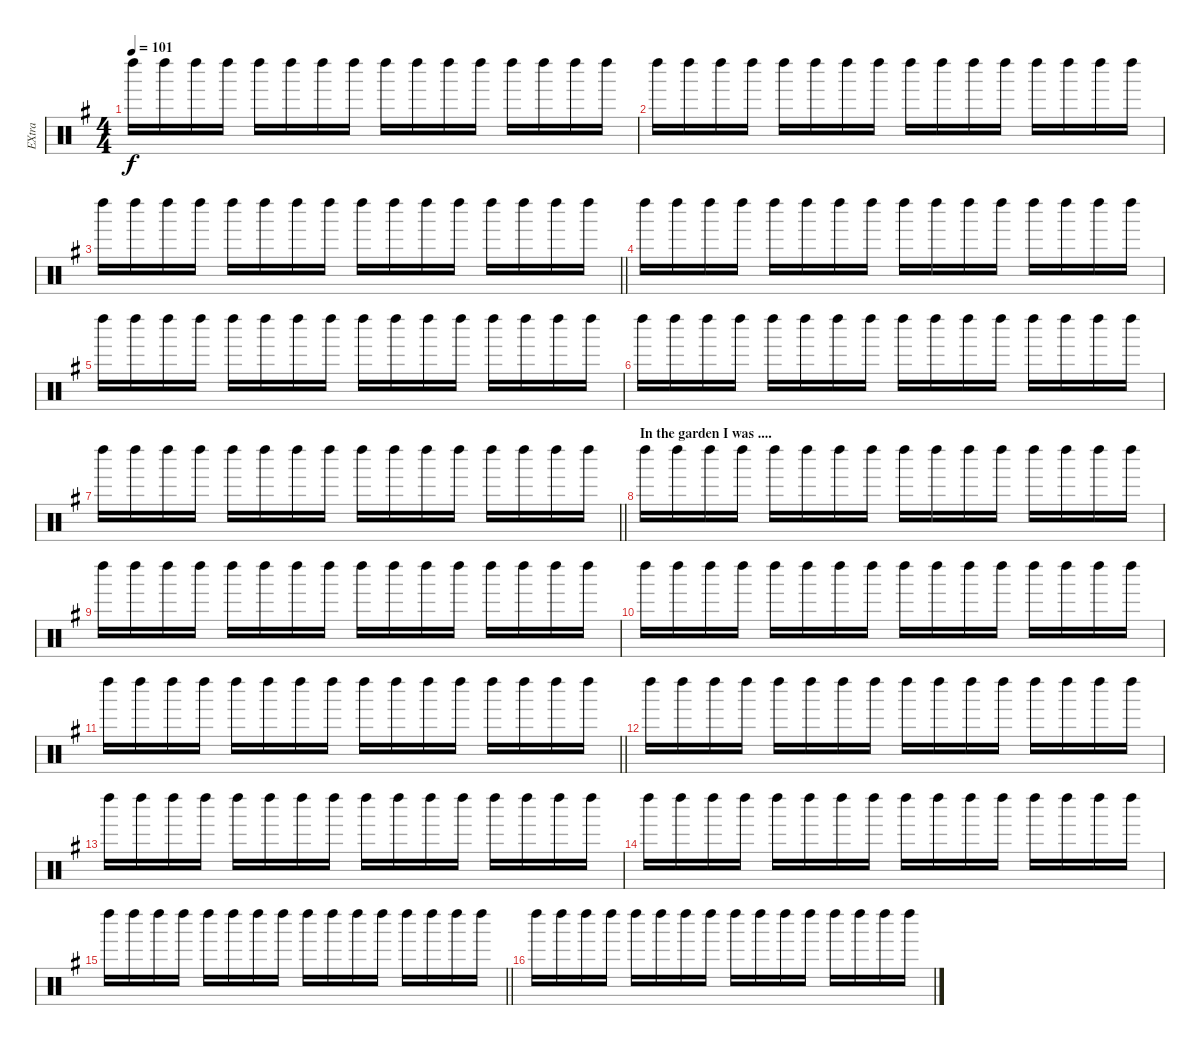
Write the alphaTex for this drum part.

\track ("EXtra" "EXtra") {instrument percussion}
\staff {score}
\articulation defaults
\ts (4 4)
\tempo 101
\clef neutral
\ks g "Left Maraca (hit)".16{dy f} "Left Maraca (hit)".16 "Left Maraca (hit)".16 "Left Maraca (hit)".16 "Left Maraca (hit)".16 "Left Maraca (hit)".16 "Left Maraca (hit)".16 "Left Maraca (hit)".16 "Left Maraca (hit)".16 "Left Maraca (hit)".16 "Left Maraca (hit)".16 "Left Maraca (hit)".16 "Left Maraca (hit)".16 "Left Maraca (hit)".16 "Left Maraca (hit)".16 "Left Maraca (hit)".16
|
"Left Maraca (hit)".16 "Left Maraca (hit)".16 "Left Maraca (hit)".16 "Left Maraca (hit)".16 "Left Maraca (hit)".16 "Left Maraca (hit)".16 "Left Maraca (hit)".16 "Left Maraca (hit)".16 "Left Maraca (hit)".16 "Left Maraca (hit)".16 "Left Maraca (hit)".16 "Left Maraca (hit)".16 "Left Maraca (hit)".16 "Left Maraca (hit)".16 "Left Maraca (hit)".16 "Left Maraca (hit)".16 |
\barLineRight lightlight "Left Maraca (hit)".16 "Left Maraca (hit)".16 "Left Maraca (hit)".16 "Left Maraca (hit)".16 "Left Maraca (hit)".16 "Left Maraca (hit)".16 "Left Maraca (hit)".16 "Left Maraca (hit)".16 "Left Maraca (hit)".16 "Left Maraca (hit)".16 "Left Maraca (hit)".16 "Left Maraca (hit)".16 "Left Maraca (hit)".16 "Left Maraca (hit)".16 "Left Maraca (hit)".16 "Left Maraca (hit)".16
|
"Left Maraca (hit)".16 "Left Maraca (hit)".16 "Left Maraca (hit)".16 "Left Maraca (hit)".16 "Left Maraca (hit)".16 "Left Maraca (hit)".16 "Left Maraca (hit)".16 "Left Maraca (hit)".16 "Left Maraca (hit)".16 "Left Maraca (hit)".16 "Left Maraca (hit)".16 "Left Maraca (hit)".16 "Left Maraca (hit)".16 "Left Maraca (hit)".16 "Left Maraca (hit)".16 "Left Maraca (hit)".16 |
"Left Maraca (hit)".16 "Left Maraca (hit)".16 "Left Maraca (hit)".16 "Left Maraca (hit)".16 "Left Maraca (hit)".16 "Left Maraca (hit)".16 "Left Maraca (hit)".16 "Left Maraca (hit)".16 "Left Maraca (hit)".16 "Left Maraca (hit)".16 "Left Maraca (hit)".16 "Left Maraca (hit)".16 "Left Maraca (hit)".16 "Left Maraca (hit)".16 "Left Maraca (hit)".16 "Left Maraca (hit)".16 |
"Left Maraca (hit)".16 "Left Maraca (hit)".16 "Left Maraca (hit)".16 "Left Maraca (hit)".16 "Left Maraca (hit)".16 "Left Maraca (hit)".16 "Left Maraca (hit)".16 "Left Maraca (hit)".16 "Left Maraca (hit)".16 "Left Maraca (hit)".16 "Left Maraca (hit)".16 "Left Maraca (hit)".16 "Left Maraca (hit)".16 "Left Maraca (hit)".16 "Left Maraca (hit)".16 "Left Maraca (hit)".16 |
\barLineRight lightlight "Left Maraca (hit)".16 "Left Maraca (hit)".16 "Left Maraca (hit)".16 "Left Maraca (hit)".16 "Left Maraca (hit)".16 "Left Maraca (hit)".16 "Left Maraca (hit)".16 "Left Maraca (hit)".16 "Left Maraca (hit)".16 "Left Maraca (hit)".16 "Left Maraca (hit)".16 "Left Maraca (hit)".16 "Left Maraca (hit)".16 "Left Maraca (hit)".16 "Left Maraca (hit)".16 "Left Maraca (hit)".16
|
\section ("" "In the garden I was ....")
"Left Maraca (hit)".16 "Left Maraca (hit)".16 "Left Maraca (hit)".16 "Left Maraca (hit)".16 "Left Maraca (hit)".16 "Left Maraca (hit)".16 "Left Maraca (hit)".16 "Left Maraca (hit)".16 "Left Maraca (hit)".16 "Left Maraca (hit)".16 "Left Maraca (hit)".16 "Left Maraca (hit)".16 "Left Maraca (hit)".16 "Left Maraca (hit)".16 "Left Maraca (hit)".16 "Left Maraca (hit)".16 |
"Left Maraca (hit)".16 "Left Maraca (hit)".16 "Left Maraca (hit)".16 "Left Maraca (hit)".16 "Left Maraca (hit)".16 "Left Maraca (hit)".16 "Left Maraca (hit)".16 "Left Maraca (hit)".16 "Left Maraca (hit)".16 "Left Maraca (hit)".16 "Left Maraca (hit)".16 "Left Maraca (hit)".16 "Left Maraca (hit)".16 "Left Maraca (hit)".16 "Left Maraca (hit)".16 "Left Maraca (hit)".16 |
"Left Maraca (hit)".16 "Left Maraca (hit)".16 "Left Maraca (hit)".16 "Left Maraca (hit)".16 "Left Maraca (hit)".16 "Left Maraca (hit)".16 "Left Maraca (hit)".16 "Left Maraca (hit)".16 "Left Maraca (hit)".16 "Left Maraca (hit)".16 "Left Maraca (hit)".16 "Left Maraca (hit)".16 "Left Maraca (hit)".16 "Left Maraca (hit)".16 "Left Maraca (hit)".16 "Left Maraca (hit)".16 |
\barLineRight lightlight "Left Maraca (hit)".16 "Left Maraca (hit)".16 "Left Maraca (hit)".16 "Left Maraca (hit)".16 "Left Maraca (hit)".16 "Left Maraca (hit)".16 "Left Maraca (hit)".16 "Left Maraca (hit)".16 "Left Maraca (hit)".16 "Left Maraca (hit)".16 "Left Maraca (hit)".16 "Left Maraca (hit)".16 "Left Maraca (hit)".16 "Left Maraca (hit)".16 "Left Maraca (hit)".16 "Left Maraca (hit)".16
|
"Left Maraca (hit)".16 "Left Maraca (hit)".16 "Left Maraca (hit)".16 "Left Maraca (hit)".16 "Left Maraca (hit)".16 "Left Maraca (hit)".16 "Left Maraca (hit)".16 "Left Maraca (hit)".16 "Left Maraca (hit)".16 "Left Maraca (hit)".16 "Left Maraca (hit)".16 "Left Maraca (hit)".16 "Left Maraca (hit)".16 "Left Maraca (hit)".16 "Left Maraca (hit)".16 "Left Maraca (hit)".16 |
"Left Maraca (hit)".16 "Left Maraca (hit)".16 "Left Maraca (hit)".16 "Left Maraca (hit)".16 "Left Maraca (hit)".16 "Left Maraca (hit)".16 "Left Maraca (hit)".16 "Left Maraca (hit)".16 "Left Maraca (hit)".16 "Left Maraca (hit)".16 "Left Maraca (hit)".16 "Left Maraca (hit)".16 "Left Maraca (hit)".16 "Left Maraca (hit)".16 "Left Maraca (hit)".16 "Left Maraca (hit)".16 |
"Left Maraca (hit)".16 "Left Maraca (hit)".16 "Left Maraca (hit)".16 "Left Maraca (hit)".16 "Left Maraca (hit)".16 "Left Maraca (hit)".16 "Left Maraca (hit)".16 "Left Maraca (hit)".16 "Left Maraca (hit)".16 "Left Maraca (hit)".16 "Left Maraca (hit)".16 "Left Maraca (hit)".16 "Left Maraca (hit)".16 "Left Maraca (hit)".16 "Left Maraca (hit)".16 "Left Maraca (hit)".16 |
\barLineRight lightlight "Left Maraca (hit)".16 "Left Maraca (hit)".16 "Left Maraca (hit)".16 "Left Maraca (hit)".16 "Left Maraca (hit)".16 "Left Maraca (hit)".16 "Left Maraca (hit)".16 "Left Maraca (hit)".16 "Left Maraca (hit)".16 "Left Maraca (hit)".16 "Left Maraca (hit)".16 "Left Maraca (hit)".16 "Left Maraca (hit)".16 "Left Maraca (hit)".16 "Left Maraca (hit)".16 "Left Maraca (hit)".16
|
"Left Maraca (hit)".16 "Left Maraca (hit)".16 "Left Maraca (hit)".16 "Left Maraca (hit)".16 "Left Maraca (hit)".16 "Left Maraca (hit)".16 "Left Maraca (hit)".16 "Left Maraca (hit)".16 "Left Maraca (hit)".16 "Left Maraca (hit)".16 "Left Maraca (hit)".16 "Left Maraca (hit)".16 "Left Maraca (hit)".16 "Left Maraca (hit)".16 "Left Maraca (hit)".16 "Left Maraca (hit)".16
